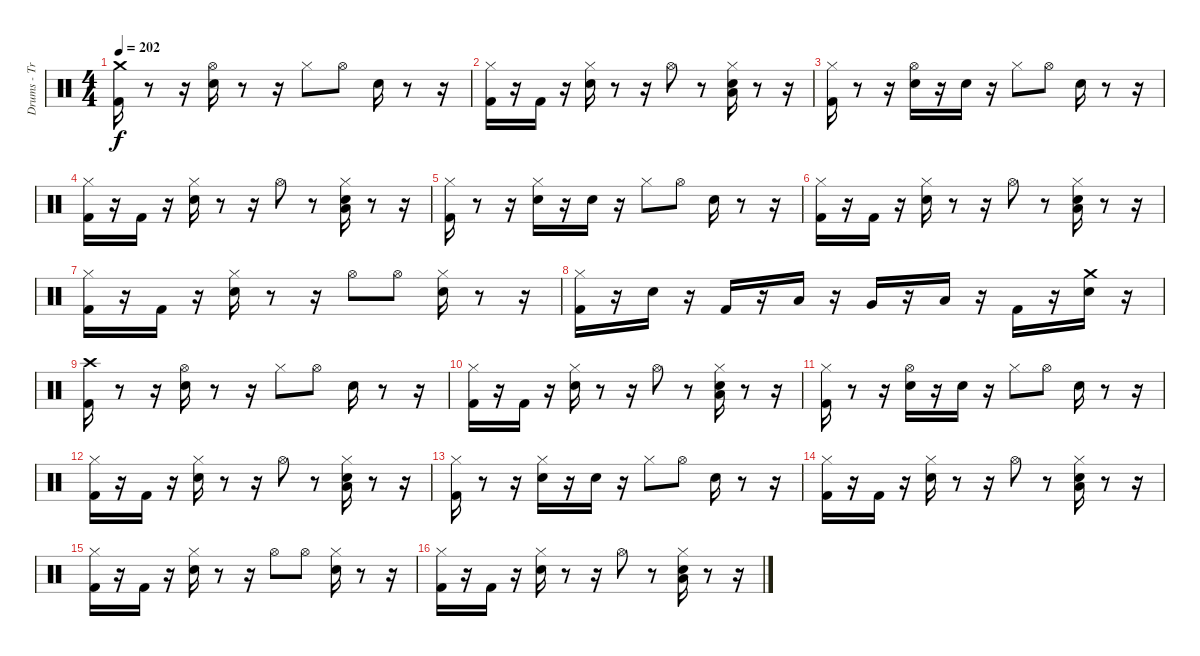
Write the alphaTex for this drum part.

\track ("Drums - Travis Barker" "Drums - Tr") {instrument percussion}
\staff {score}
\articulation defaults
\ts (4 4)
\tempo 202
\clef neutral
\ks c
("Kick (hit) 2" "Crash medium (hit)").16{dy f} r.8 r.16 ("Electric Snare (hit)" "Hi-Hat (open)").16 r.8 r.16 "Hi-Hat (closed)".8 "Hi-Hat (open)".8 "Electric Snare (hit)".16 r.8 r.16 |
("Hi-Hat (closed)" "Kick (hit) 2").16 r.16 "Kick (hit) 2".16 r.16 ("Electric Snare (hit)" "Hi-Hat (closed)").16 r.8 r.16 "Hi-Hat (open)".8 r.8 ("Electric Snare (hit)" "Low Tom (hit)" "Hi-Hat (closed)").16 r.8 r.16 |
("Kick (hit) 2" "Hi-Hat (closed)").16 r.8 r.16 ("Electric Snare (hit)" "Hi-Hat (open)").16 r.16 "Electric Snare (hit)".16 r.16 "Hi-Hat (closed)".8 "Hi-Hat (open)".8 "Electric Snare (hit)".16 r.8 r.16 |
("Hi-Hat (closed)" "Kick (hit) 2").16 r.16 "Kick (hit) 2".16 r.16 ("Electric Snare (hit)" "Hi-Hat (closed)").16 r.8 r.16 "Hi-Hat (open)".8 r.8 ("Electric Snare (hit)" "Low Tom (hit)" "Hi-Hat (closed)").16 r.8 r.16 |
("Kick (hit) 2" "Hi-Hat (closed)").16 r.8 r.16 ("Electric Snare (hit)" "Hi-Hat (closed)").16 r.16 "Electric Snare (hit)".16 r.16 "Hi-Hat (closed)".8 "Hi-Hat (open)".8 "Electric Snare (hit)".16 r.8 r.16 |
("Hi-Hat (closed)" "Kick (hit) 2").16 r.16 "Kick (hit) 2".16 r.16 ("Electric Snare (hit)" "Hi-Hat (closed)").16 r.8 r.16 "Hi-Hat (open)".8 r.8 ("Electric Snare (hit)" "Low Tom (hit)" "Hi-Hat (closed)").16 r.8 r.16 |
("Kick (hit) 2" "Hi-Hat (closed)").16 r.16 "Kick (hit) 2".16 r.16 ("Electric Snare (hit)" "Hi-Hat (closed)").16 r.8 r.16 "Hi-Hat (open)".8 "Hi-Hat (open)".8 ("Electric Snare (hit)" "Hi-Hat (closed)").16 r.8 r.16 |
("Hi-Hat (closed)" "Kick (hit) 2").16 r.16 "Electric Snare (hit)".16 r.16 "Kick (hit) 2".16 r.16 "Low Tom (hit)".16 r.16 "Very Low Tom (hit)".16 r.16 "Low Floor Tom (hit)".16 r.16 "Kick (hit) 2".16 r.16 ("Crash medium (hit)" "Electric Snare (hit)").16 r.16 |
("Kick (hit) 2" "Crash high (hit)").16 r.8 r.16 ("Electric Snare (hit)" "Hi-Hat (open)").16 r.8 r.16 "Hi-Hat (closed)".8 "Hi-Hat (open)".8 "Electric Snare (hit)".16 r.8 r.16 |
("Hi-Hat (closed)" "Kick (hit) 2").16 r.16 "Kick (hit) 2".16 r.16 ("Electric Snare (hit)" "Hi-Hat (closed)").16 r.8 r.16 "Hi-Hat (open)".8 r.8 ("Electric Snare (hit)" "Low Tom (hit)" "Hi-Hat (closed)").16 r.8 r.16 |
("Kick (hit) 2" "Hi-Hat (closed)").16 r.8 r.16 ("Electric Snare (hit)" "Hi-Hat (open)").16 r.16 "Electric Snare (hit)".16 r.16 "Hi-Hat (closed)".8 "Hi-Hat (open)".8 "Electric Snare (hit)".16 r.8 r.16 |
("Hi-Hat (closed)" "Kick (hit) 2").16 r.16 "Kick (hit) 2".16 r.16 ("Electric Snare (hit)" "Hi-Hat (closed)").16 r.8 r.16 "Hi-Hat (open)".8 r.8 ("Electric Snare (hit)" "Low Tom (hit)" "Hi-Hat (closed)").16 r.8 r.16 |
("Kick (hit) 2" "Hi-Hat (closed)").16 r.8 r.16 ("Electric Snare (hit)" "Hi-Hat (closed)").16 r.16 "Electric Snare (hit)".16 r.16 "Hi-Hat (closed)".8 "Hi-Hat (open)".8 "Electric Snare (hit)".16 r.8 r.16 |
("Hi-Hat (closed)" "Kick (hit) 2").16 r.16 "Kick (hit) 2".16 r.16 ("Electric Snare (hit)" "Hi-Hat (closed)").16 r.8 r.16 "Hi-Hat (open)".8 r.8 ("Electric Snare (hit)" "Low Tom (hit)" "Hi-Hat (closed)").16 r.8 r.16 |
("Kick (hit) 2" "Hi-Hat (closed)").16 r.16 "Kick (hit) 2".16 r.16 ("Electric Snare (hit)" "Hi-Hat (closed)").16 r.8 r.16 "Hi-Hat (open)".8 "Hi-Hat (open)".8 ("Electric Snare (hit)" "Hi-Hat (closed)").16 r.8 r.16 |
("Hi-Hat (closed)" "Kick (hit) 2").16 r.16 "Kick (hit) 2".16 r.16 ("Electric Snare (hit)" "Hi-Hat (closed)").16 r.8 r.16 "Hi-Hat (open)".8 r.8 ("Electric Snare (hit)" "Low Tom (hit)" "Hi-Hat (closed)").16 r.8 r.16
